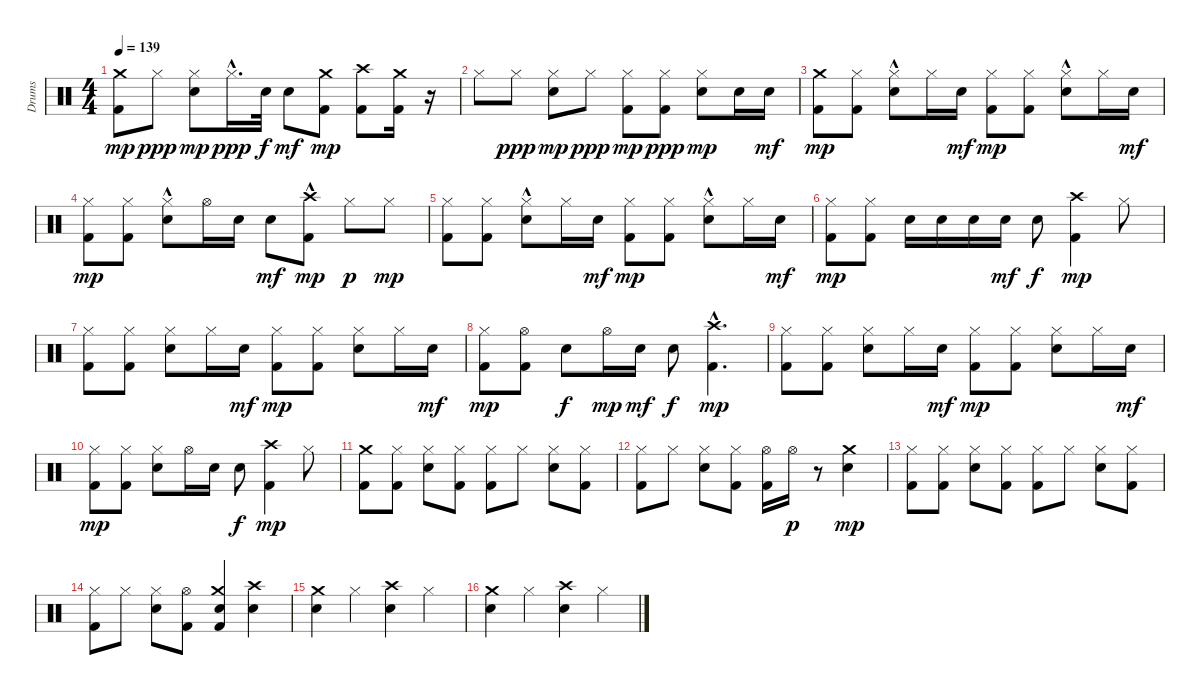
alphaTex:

\track ("Drums" "Drums") {instrument percussion}
\staff {score}
\articulation defaults
\ts (4 4)
\tempo 139
\clef neutral
\ks c
("Kick (hit) 2" "Crash medium (hit)").8{dy mp} "Hi-Hat (closed)".8{dy ppp} ("Hi-Hat (closed)" "Electric Snare (hit)").8{dy mp} "Hi-Hat (closed)"{hac}.16{d dy ppp} "Electric Snare (hit)".32{dy f} "Electric Snare (hit)".8{dy mf} ("Kick (hit) 2" "Crash medium (hit)").8{dy mp} ("Kick (hit) 2" "Crash high (hit)").8 ("Kick (hit) 2" "Crash medium (hit)").16 r.16 |
"Hi-Hat (closed)".8 "Hi-Hat (closed)".8{dy ppp} ("Hi-Hat (closed)" "Electric Snare (hit)").8{dy mp} "Hi-Hat (closed)".8{dy ppp} ("Kick (hit) 2" "Hi-Hat (closed)").8{dy mp} ("Kick (hit) 2" "Hi-Hat (closed)").8{dy ppp} ("Hi-Hat (closed)" "Electric Snare (hit)").8{dy mp} "Electric Snare (hit)".16 "Electric Snare (hit)".16{dy mf} |
("Kick (hit) 2" "Crash medium (hit)").8{dy mp} ("Kick (hit) 2" "Hi-Hat (closed)").8 ("Hi-Hat (closed)" "Electric Snare (hit)"{hac}).8 "Hi-Hat (closed)".16 "Electric Snare (hit)".16{dy mf} ("Kick (hit) 2" "Hi-Hat (closed)").8{dy mp} ("Kick (hit) 2" "Hi-Hat (closed)").8 ("Hi-Hat (closed)" "Electric Snare (hit)"{hac}).8 "Hi-Hat (closed)".16 "Electric Snare (hit)".16{dy mf} |
("Kick (hit) 2" "Hi-Hat (closed)").8{dy mp} ("Kick (hit) 2" "Hi-Hat (closed)").8 ("Hi-Hat (closed)" "Electric Snare (hit)"{hac}).8 "Hi-Hat (open)".16 "Electric Snare (hit)".16 "Electric Snare (hit)".8{dy mf} ("Kick (hit) 2" "Crash high (hit)"{hac}).8{dy mp} "Hi-Hat (closed)".8{dy p} "Hi-Hat (closed)".8{dy mp} |
("Kick (hit) 2" "Hi-Hat (closed)").8 ("Kick (hit) 2" "Hi-Hat (closed)").8 ("Hi-Hat (closed)" "Electric Snare (hit)"{hac}).8 "Hi-Hat (closed)".16 "Electric Snare (hit)".16{dy mf} ("Kick (hit) 2" "Hi-Hat (closed)").8{dy mp} ("Kick (hit) 2" "Hi-Hat (closed)").8 ("Hi-Hat (closed)" "Electric Snare (hit)"{hac}).8 "Hi-Hat (closed)".16 "Electric Snare (hit)".16{dy mf} |
("Kick (hit) 2" "Hi-Hat (closed)").8{dy mp} ("Kick (hit) 2" "Hi-Hat (closed)").8 "Electric Snare (hit)".16 "Electric Snare (hit)".16 "Electric Snare (hit)".16 "Electric Snare (hit)".16{dy mf} "Electric Snare (hit)".8{dy f} ("Kick (hit) 2" "Crash high (hit)").4{dy mp} "Hi-Hat (closed)".8 |
("Kick (hit) 2" "Hi-Hat (closed)").8 ("Kick (hit) 2" "Hi-Hat (closed)").8 ("Hi-Hat (closed)" "Electric Snare (hit)").8 "Hi-Hat (closed)".16 "Electric Snare (hit)".16{dy mf} ("Kick (hit) 2" "Hi-Hat (closed)").8{dy mp} ("Kick (hit) 2" "Hi-Hat (closed)").8 ("Hi-Hat (closed)" "Electric Snare (hit)").8 "Hi-Hat (closed)".16 "Electric Snare (hit)".16{dy mf} |
("Kick (hit) 2" "Hi-Hat (closed)").8{dy mp} ("Kick (hit) 2" "Hi-Hat (open)").8 "Electric Snare (hit)".8{dy f} "Hi-Hat (open)".16{dy mp} "Electric Snare (hit)".16{dy mf} "Electric Snare (hit)".8{dy f} ("Kick (hit) 2"{hac} "Crash high (hit)"{hac}).4{d dy mp} |
("Kick (hit) 2" "Hi-Hat (closed)").8 ("Kick (hit) 2" "Hi-Hat (closed)").8 ("Hi-Hat (closed)" "Electric Snare (hit)").8 "Hi-Hat (closed)".16 "Electric Snare (hit)".16{dy mf} ("Kick (hit) 2" "Hi-Hat (closed)").8{dy mp} ("Kick (hit) 2" "Hi-Hat (closed)").8 ("Hi-Hat (closed)" "Electric Snare (hit)").8 "Hi-Hat (closed)".16 "Electric Snare (hit)".16{dy mf} |
("Kick (hit) 2" "Hi-Hat (closed)").8{dy mp} ("Kick (hit) 2" "Hi-Hat (closed)").8 ("Hi-Hat (closed)" "Electric Snare (hit)").8 "Hi-Hat (open)".16 "Electric Snare (hit)".16 "Electric Snare (hit)".8{dy f} ("Kick (hit) 2" "Crash high (hit)").4{dy mp} "Hi-Hat (closed)".8 |
("Kick (hit) 2" "Crash medium (hit)").8 ("Kick (hit) 2" "Hi-Hat (closed)").8 ("Hi-Hat (closed)" "Electric Snare (hit)").8 ("Kick (hit) 2" "Hi-Hat (closed)").8 ("Kick (hit) 2" "Hi-Hat (closed)").8 "Hi-Hat (closed)".8 ("Hi-Hat (closed)" "Electric Snare (hit)").8 ("Kick (hit) 2" "Hi-Hat (closed)").8 |
("Kick (hit) 2" "Hi-Hat (closed)").8 "Hi-Hat (closed)".8 ("Hi-Hat (closed)" "Electric Snare (hit)").8 ("Kick (hit) 2" "Hi-Hat (closed)").8 ("Kick (hit) 2" "Hi-Hat (open)").16 "Hi-Hat (open)".16{dy p} r.8 ("Crash medium (hit)" "Electric Snare (hit)").4{dy mp} |
("Kick (hit) 2" "Hi-Hat (closed)").8 ("Kick (hit) 2" "Hi-Hat (closed)").8 ("Hi-Hat (closed)" "Electric Snare (hit)").8 ("Kick (hit) 2" "Hi-Hat (closed)").8 ("Kick (hit) 2" "Hi-Hat (closed)").8 "Hi-Hat (closed)".8 ("Hi-Hat (closed)" "Electric Snare (hit)").8 ("Kick (hit) 2" "Hi-Hat (closed)").8 |
("Kick (hit) 2" "Hi-Hat (closed)").8 "Hi-Hat (closed)".8 ("Hi-Hat (closed)" "Electric Snare (hit)").8 ("Kick (hit) 2" "Hi-Hat (open)").8 ("Kick (hit) 2" "Crash medium (hit)" "Electric Snare (hit)").4 ("Crash high (hit)" "Electric Snare (hit)").4 |
("Crash medium (hit)" "Electric Snare (hit)").4 "Hi-Hat (closed)".4 ("Crash high (hit)" "Electric Snare (hit)").4 "Hi-Hat (closed)".4 |
("Crash medium (hit)" "Electric Snare (hit)").4 "Hi-Hat (closed)".4 ("Crash high (hit)" "Electric Snare (hit)").4 "Hi-Hat (closed)".4
